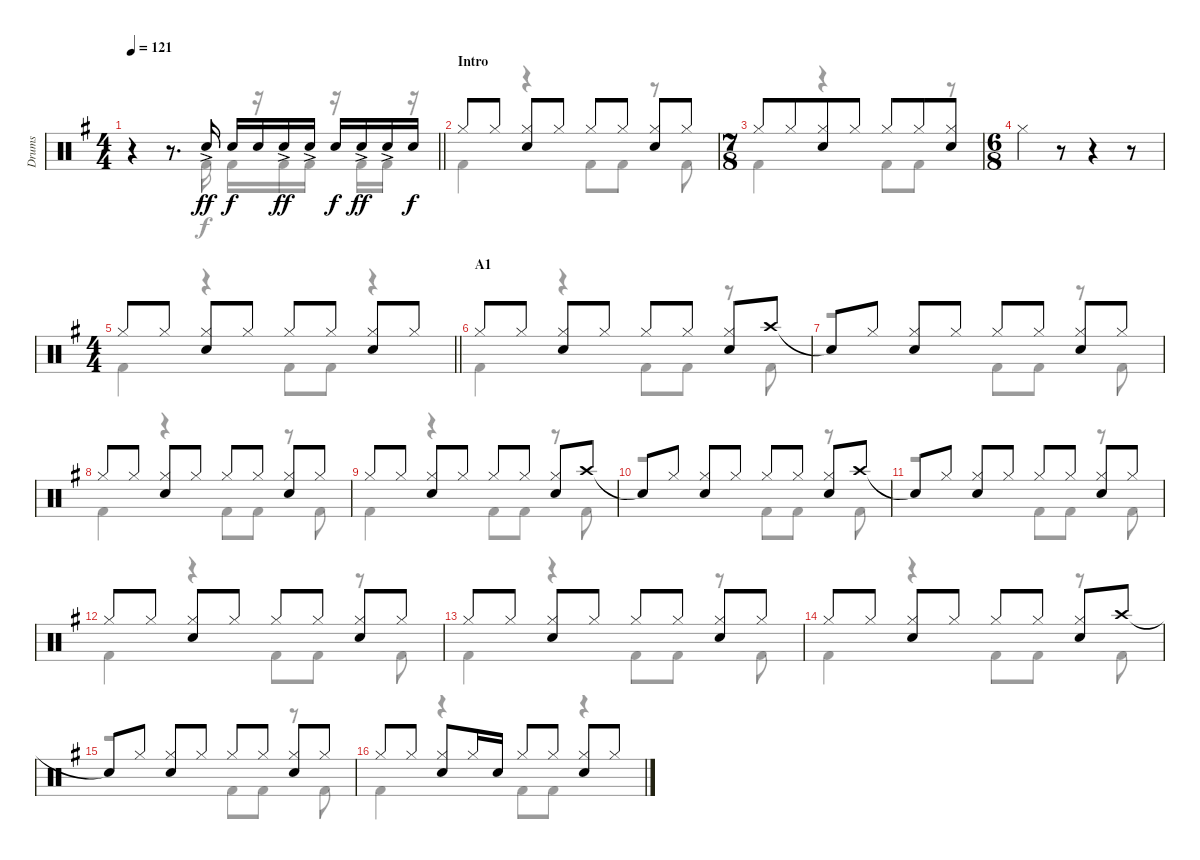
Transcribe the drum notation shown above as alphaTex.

\track ("Drums" "Drums") {instrument percussion}
\staff {score}
\articulation defaults
\voice
\ts (4 4)
\tempo 121
\clef neutral
\barLineRight lightlight
\ks g
r.4{dy ff} r.8{d} "Snare (hit) 2"{ac}.16 "Snare (hit) 2".16{dy f} "Snare (hit) 2".16 "Snare (hit) 2"{ac}.16{dy ff} "Snare (hit) 2"{ac}.16 "Snare (hit) 2".16{dy f} "Snare (hit) 2"{ac}.16{dy ff} "Snare (hit) 2"{ac}.16 "Snare (hit) 2".16{dy f} |
\section ("" "Intro")
"Hi-Hat (closed)".8 "Hi-Hat (closed)".8 ("Hi-Hat (closed)" "Snare (hit) 2").8 "Hi-Hat (closed)".8 "Hi-Hat (closed)".8 "Hi-Hat (closed)".8 ("Hi-Hat (closed)" "Snare (hit) 2").8 "Hi-Hat (closed)".8 |
\ts (7 8)
"Hi-Hat (closed)".8 "Hi-Hat (closed)".8 ("Hi-Hat (closed)" "Snare (hit) 2").8 "Hi-Hat (closed)".8 "Hi-Hat (closed)".8 "Hi-Hat (closed)".8 ("Hi-Hat (closed)" "Snare (hit) 2").8 |
\ts (6 8)
"Hi-Hat (closed)".4 r.8 r.4 r.8 |
\ts (4 4)
\barLineRight lightlight "Hi-Hat (closed)".8 "Hi-Hat (closed)".8
("Hi-Hat (closed)" "Snare (hit) 2").8 "Hi-Hat (closed)".8 "Hi-Hat (closed)".8 "Hi-Hat (closed)".8 ("Hi-Hat (closed)" "Snare (hit) 2").8 "Hi-Hat (closed)".8 |
\section ("" "A1")
"Hi-Hat (closed)".8 "Hi-Hat (closed)".8 ("Hi-Hat (closed)" "Snare (hit) 2").8 "Hi-Hat (closed)".8 "Hi-Hat (closed)".8 "Hi-Hat (closed)".8 ("Hi-Hat (closed)" "Snare (hit) 2").8 "Crash high (hit)".8 |
"Snare (hit)"{t}.8 "Hi-Hat (closed)".8 ("Hi-Hat (closed)" "Snare (hit) 2").8 "Hi-Hat (closed)".8 "Hi-Hat (closed)".8 "Hi-Hat (closed)".8 ("Hi-Hat (closed)" "Snare (hit) 2").8 "Hi-Hat (closed)".8 |
"Hi-Hat (closed)".8 "Hi-Hat (closed)".8 ("Hi-Hat (closed)" "Snare (hit) 2").8 "Hi-Hat (closed)".8 "Hi-Hat (closed)".8 "Hi-Hat (closed)".8 ("Hi-Hat (closed)" "Snare (hit) 2").8 "Hi-Hat (closed)".8 |
"Hi-Hat (closed)".8 "Hi-Hat (closed)".8 ("Hi-Hat (closed)" "Snare (hit) 2").8 "Hi-Hat (closed)".8 "Hi-Hat (closed)".8 "Hi-Hat (closed)".8 ("Hi-Hat (closed)" "Snare (hit) 2").8 "Crash high (hit)".8 |
"Snare (hit)"{t}.8 "Hi-Hat (closed)".8 ("Hi-Hat (closed)" "Snare (hit) 2").8 "Hi-Hat (closed)".8 "Hi-Hat (closed)".8 "Hi-Hat (closed)".8 ("Hi-Hat (closed)" "Snare (hit) 2").8 "Crash high (hit)".8 |
"Snare (hit)"{t}.8 "Hi-Hat (closed)".8 ("Hi-Hat (closed)" "Snare (hit) 2").8 "Hi-Hat (closed)".8 "Hi-Hat (closed)".8 "Hi-Hat (closed)".8 ("Hi-Hat (closed)" "Snare (hit) 2").8 "Hi-Hat (closed)".8 |
"Hi-Hat (closed)".8 "Hi-Hat (closed)".8 ("Hi-Hat (closed)" "Snare (hit) 2").8 "Hi-Hat (closed)".8 "Hi-Hat (closed)".8 "Hi-Hat (closed)".8 ("Hi-Hat (closed)" "Snare (hit) 2").8 "Hi-Hat (closed)".8 |
"Hi-Hat (closed)".8 "Hi-Hat (closed)".8 ("Hi-Hat (closed)" "Snare (hit) 2").8 "Hi-Hat (closed)".8 "Hi-Hat (closed)".8 "Hi-Hat (closed)".8 ("Hi-Hat (closed)" "Snare (hit) 2").8 "Hi-Hat (closed)".8 |
"Hi-Hat (closed)".8 "Hi-Hat (closed)".8 ("Hi-Hat (closed)" "Snare (hit) 2").8 "Hi-Hat (closed)".8 "Hi-Hat (closed)".8 "Hi-Hat (closed)".8 ("Hi-Hat (closed)" "Snare (hit) 2").8 "Crash high (hit)".8 |
"Snare (hit)"{t}.8 "Hi-Hat (closed)".8 ("Hi-Hat (closed)" "Snare (hit) 2").8 "Hi-Hat (closed)".8 "Hi-Hat (closed)".8 "Hi-Hat (closed)".8 ("Hi-Hat (closed)" "Snare (hit) 2").8 "Hi-Hat (closed)".8 |
"Hi-Hat (closed)".8 "Hi-Hat (closed)".8 ("Hi-Hat (closed)" "Snare (hit) 2").8 "Hi-Hat (closed)".16 "Snare (hit) 2".16 "Hi-Hat (closed)".8 "Hi-Hat (closed)".8 ("Hi-Hat (closed)" "Snare (hit) 2").8 "Hi-Hat (closed)".8
\voice
\clef neutral
\ottava regular
\simile none
\barLineRight lightlight
\ks g
r.4{dy f} r.8{d} "Kick (hit) 2".16 "Kick (hit) 2".16 r.16 "Kick (hit) 2".16 "Kick (hit) 2".16 r.16 "Kick (hit) 2".16 "Kick (hit) 2".16 r.16 |
"Kick (hit) 2".4 r.4 "Kick (hit) 2".8 "Kick (hit) 2".8 r.8 "Kick (hit) 2".8 |
"Kick (hit) 2".4 r.4 "Kick (hit) 2".8 "Kick (hit) 2".8 r.8 |
|
\barLineRight lightlight "Kick (hit) 2".4
r.4 "Kick (hit) 2".8 "Kick (hit) 2".8 r.4 |
"Kick (hit) 2".4 r.4 "Kick (hit) 2".8 "Kick (hit) 2".8 r.8 "Kick (hit) 2".8 |
r.2 "Kick (hit) 2".8 "Kick (hit) 2".8 r.8 "Kick (hit) 2".8 |
"Kick (hit) 2".4 r.4 "Kick (hit) 2".8 "Kick (hit) 2".8 r.8 "Kick (hit) 2".8 |
"Kick (hit) 2".4 r.4 "Kick (hit) 2".8 "Kick (hit) 2".8 r.8 "Kick (hit) 2".8 |
r.2 "Kick (hit) 2".8 "Kick (hit) 2".8 r.8 "Kick (hit) 2".8 |
r.2 "Kick (hit) 2".8 "Kick (hit) 2".8 r.8 "Kick (hit) 2".8 |
"Kick (hit) 2".4 r.4 "Kick (hit) 2".8 "Kick (hit) 2".8 r.8 "Kick (hit) 2".8 |
"Kick (hit) 2".4 r.4 "Kick (hit) 2".8 "Kick (hit) 2".8 r.8 "Kick (hit) 2".8 |
"Kick (hit) 2".4 r.4 "Kick (hit) 2".8 "Kick (hit) 2".8 r.8 "Kick (hit) 2".8 |
r.2 "Kick (hit) 2".8 "Kick (hit) 2".8 r.8 "Kick (hit) 2".8 |
"Kick (hit) 2".4 r.4 "Kick (hit) 2".8 "Kick (hit) 2".8 r.4
